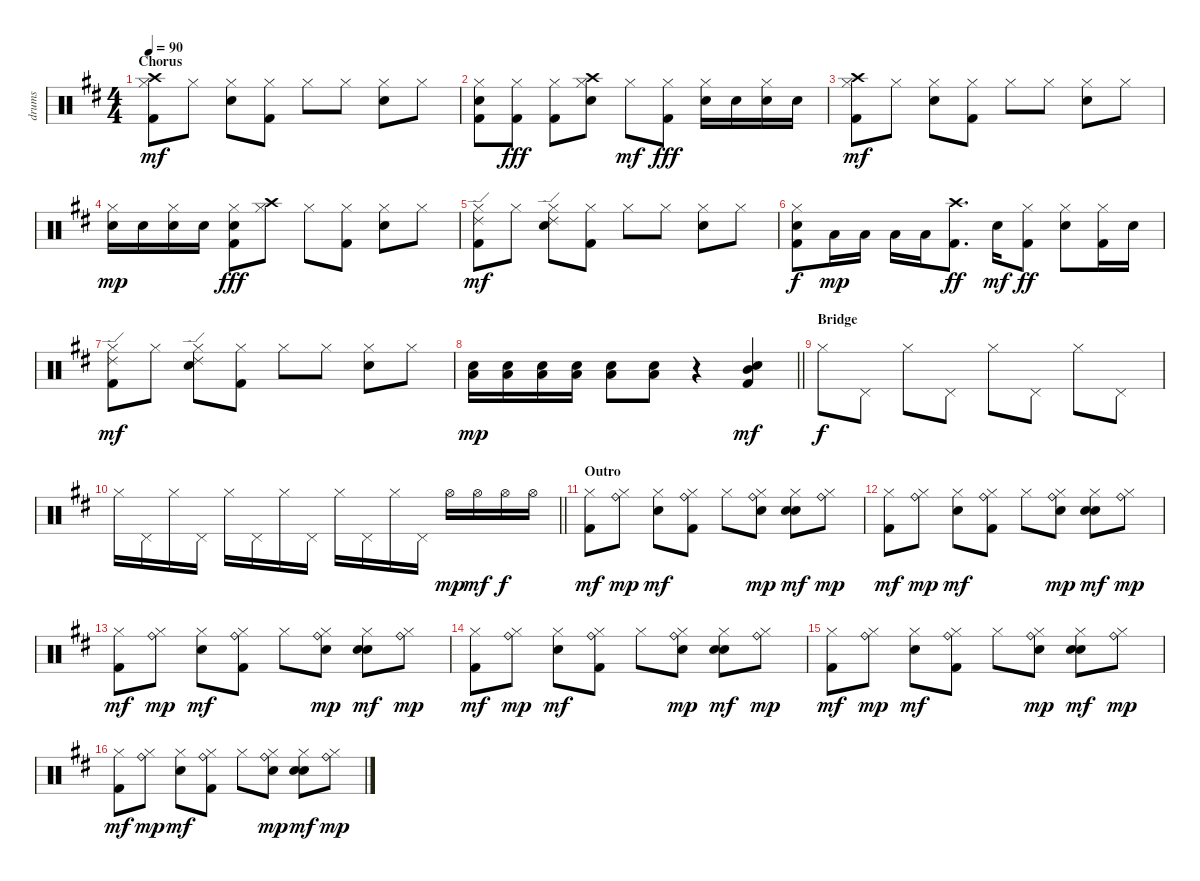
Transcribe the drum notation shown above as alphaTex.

\track ("drums" "drums") {instrument percussion}
\staff {score}
\articulation defaults
\ts (4 4)
\section ("" "Chorus")
\tempo 90
\clef neutral
\ks d
("Hi-Hat (closed)" "Crash high (hit)" "Kick (hit) 2").8{dy mf} "Hi-Hat (closed)".8 ("Hi-Hat (closed)" "Electric Snare (hit)").8 ("Hi-Hat (closed)" "Kick (hit) 2").8 "Hi-Hat (closed)".8 "Hi-Hat (closed)".8 ("Hi-Hat (closed)" "Snare (hit) 2").8 "Hi-Hat (closed)".8 |
("Hi-Hat (closed)" "Electric Snare (hit)" "Kick (hit) 2").8 ("Hi-Hat (closed)" "Kick (hit) 2").8{dy fff} ("Hi-Hat (closed)" "Kick (hit) 2").8 ("Hi-Hat (closed)" "Crash high (hit)" "Electric Snare (hit)").8 "Hi-Hat (closed)".8{dy mf} ("Hi-Hat (closed)" "Kick (hit) 2").8{dy fff} ("Hi-Hat (closed)" "Snare (hit) 2").16 "Electric Snare (hit)".16 ("Hi-Hat (closed)" "Snare (hit) 2").16 "Electric Snare (hit)".16 |
("Hi-Hat (closed)" "Crash high (hit)" "Kick (hit) 2").8{dy mf} "Hi-Hat (closed)".8 ("Hi-Hat (closed)" "Electric Snare (hit)").8 ("Hi-Hat (closed)" "Kick (hit) 2").8 "Hi-Hat (closed)".8 "Hi-Hat (closed)".8 ("Hi-Hat (closed)" "Snare (hit) 2").8 "Hi-Hat (closed)".8 |
("Hi-Hat (closed)" "Snare (hit) 2").16{dy mp} "Electric Snare (hit)".16 ("Hi-Hat (closed)" "Snare (hit) 2").16 "Electric Snare (hit)".16 ("Hi-Hat (closed)" "Snare (hit) 2" "Kick (hit) 2").8{dy fff} ("Hi-Hat (closed)" "Crash high (hit)").8 "Hi-Hat (closed)".8 ("Hi-Hat (closed)" "Kick (hit) 2").8 ("Hi-Hat (closed)" "Electric Snare (hit)").8 "Hi-Hat (closed)".8 |
("Hi-Hat (closed)" "Ride (edge) 2" "Kick (hit) 2").8{dy mf} "Hi-Hat (closed)".8 ("Hi-Hat (closed)" "Ride (edge) 2" "Electric Snare (hit)").8 ("Hi-Hat (closed)" "Kick (hit) 2").8 "Hi-Hat (closed)".8 "Hi-Hat (closed)".8 ("Hi-Hat (closed)" "Snare (hit) 2").8 "Hi-Hat (closed)".8 |
("Hi-Hat (closed)" "Electric Snare (hit)" "Kick (hit) 2").8{dy f} "Low Tom (hit)".16{dy mp} "Low Tom (hit)".16 "Low Tom (hit)".16 "Low Tom (hit)".16 ("Crash high (hit)" "Kick (hit) 2").8{d dy ff} "Electric Snare (hit)".16{dy mf} ("Hi-Hat (closed)" "Kick (hit) 2").8{dy ff} ("Hi-Hat (closed)" "Electric Snare (hit)").8 ("Hi-Hat (closed)" "Kick (hit) 2").16 "Electric Snare (hit)".16 |
("Hi-Hat (closed)" "Ride (edge) 2" "Kick (hit) 2").8{dy mf} "Hi-Hat (closed)".8 ("Hi-Hat (closed)" "Ride (edge) 2" "Electric Snare (hit)").8 ("Hi-Hat (closed)" "Kick (hit) 2").8 "Hi-Hat (closed)".8 "Hi-Hat (closed)".8 ("Hi-Hat (closed)" "Snare (hit) 2").8 "Hi-Hat (closed)".8 |
\barLineRight lightlight
("Snare (hit) 2" "Low Floor Tom (hit)").16{dy mp} ("Snare (hit) 2" "Low Floor Tom (hit)").16 ("Snare (hit) 2" "Low Floor Tom (hit)").16 ("Snare (hit) 2" "Low Floor Tom (hit)").16 ("Snare (hit) 2" "Low Floor Tom (hit)").8 ("Snare (hit) 2" "Low Floor Tom (hit)").8 r.4 ("Mid Tom (hit)" "Electric Snare (hit)" "Kick (hit) 2").4{dy mf} |
\section ("" "Bridge")
"Hi-Hat (closed)".8{dy f} "Pedal Hi-Hat (hit)".8 "Hi-Hat (closed)".8 "Pedal Hi-Hat (hit)".8 "Hi-Hat (closed)".8 "Pedal Hi-Hat (hit)".8 "Hi-Hat (closed)".8 "Pedal Hi-Hat (hit)".8 |
\barLineRight lightlight "Hi-Hat (closed)".16 "Pedal Hi-Hat (hit)".16 "Hi-Hat (closed)".16 "Pedal Hi-Hat (hit)".16 "Hi-Hat (closed)".16 "Pedal Hi-Hat (hit)".16 "Hi-Hat (closed)".16 "Pedal Hi-Hat (hit)".16 "Hi-Hat (closed)".16 "Pedal Hi-Hat (hit)".16 "Hi-Hat (closed)".16 "Pedal Hi-Hat (hit)".16 "Hi-Hat (open)".16{dy mp} "Hi-Hat (open)".16{dy mf} "Hi-Hat (open)".16{dy f} "Hi-Hat (open)".16
|
\section ("" "Outro")
("Hi-Hat (closed)" "Kick (hit) 2").8{dy mf} ("Hi-Hat (closed)" "Ride (bell)").8{dy mp} ("Hi-Hat (closed)" "Electric Snare (hit)").8{dy mf} ("Hi-Hat (closed)" "Ride (bell)" "Kick (hit) 2").8 "Hi-Hat (closed)".8 ("Hi-Hat (closed)" "Hand Clap (hit)" "Ride (bell)").8{dy mp} ("Hi-Hat (closed)" "Hand Clap (hit)" "Snare (hit) 2").8{dy mf} ("Hi-Hat (closed)" "Ride (bell)").8{dy mp} |
("Hi-Hat (closed)" "Kick (hit) 2").8{dy mf} ("Hi-Hat (closed)" "Ride (bell)").8{dy mp} ("Hi-Hat (closed)" "Electric Snare (hit)").8{dy mf} ("Hi-Hat (closed)" "Ride (bell)" "Kick (hit) 2").8 "Hi-Hat (closed)".8 ("Hi-Hat (closed)" "Hand Clap (hit)" "Ride (bell)").8{dy mp} ("Hi-Hat (closed)" "Hand Clap (hit)" "Snare (hit) 2").8{dy mf} ("Hi-Hat (closed)" "Ride (bell)").8{dy mp} |
("Hi-Hat (closed)" "Kick (hit) 2").8{dy mf} ("Hi-Hat (closed)" "Ride (bell)").8{dy mp} ("Hi-Hat (closed)" "Electric Snare (hit)").8{dy mf} ("Hi-Hat (closed)" "Ride (bell)" "Kick (hit) 2").8 "Hi-Hat (closed)".8 ("Hi-Hat (closed)" "Hand Clap (hit)" "Ride (bell)").8{dy mp} ("Hi-Hat (closed)" "Hand Clap (hit)" "Snare (hit) 2").8{dy mf} ("Hi-Hat (closed)" "Ride (bell)").8{dy mp} |
("Hi-Hat (closed)" "Kick (hit) 2").8{dy mf} ("Hi-Hat (closed)" "Ride (bell)").8{dy mp} ("Hi-Hat (closed)" "Electric Snare (hit)").8{dy mf} ("Hi-Hat (closed)" "Ride (bell)" "Kick (hit) 2").8 "Hi-Hat (closed)".8 ("Hi-Hat (closed)" "Hand Clap (hit)" "Ride (bell)").8{dy mp} ("Hi-Hat (closed)" "Hand Clap (hit)" "Snare (hit) 2").8{dy mf} ("Hi-Hat (closed)" "Ride (bell)").8{dy mp} |
("Hi-Hat (closed)" "Kick (hit) 2").8{dy mf} ("Hi-Hat (closed)" "Ride (bell)").8{dy mp} ("Hi-Hat (closed)" "Electric Snare (hit)").8{dy mf} ("Hi-Hat (closed)" "Ride (bell)" "Kick (hit) 2").8 "Hi-Hat (closed)".8 ("Hi-Hat (closed)" "Hand Clap (hit)" "Ride (bell)").8{dy mp} ("Hi-Hat (closed)" "Hand Clap (hit)" "Snare (hit) 2").8{dy mf} ("Hi-Hat (closed)" "Ride (bell)").8{dy mp} |
("Hi-Hat (closed)" "Kick (hit) 2").8{dy mf} ("Hi-Hat (closed)" "Ride (bell)").8{dy mp} ("Hi-Hat (closed)" "Electric Snare (hit)").8{dy mf} ("Hi-Hat (closed)" "Ride (bell)" "Kick (hit) 2").8 "Hi-Hat (closed)".8 ("Hi-Hat (closed)" "Hand Clap (hit)" "Ride (bell)").8{dy mp} ("Hi-Hat (closed)" "Hand Clap (hit)" "Snare (hit) 2").8{dy mf} ("Hi-Hat (closed)" "Ride (bell)").8{dy mp}
